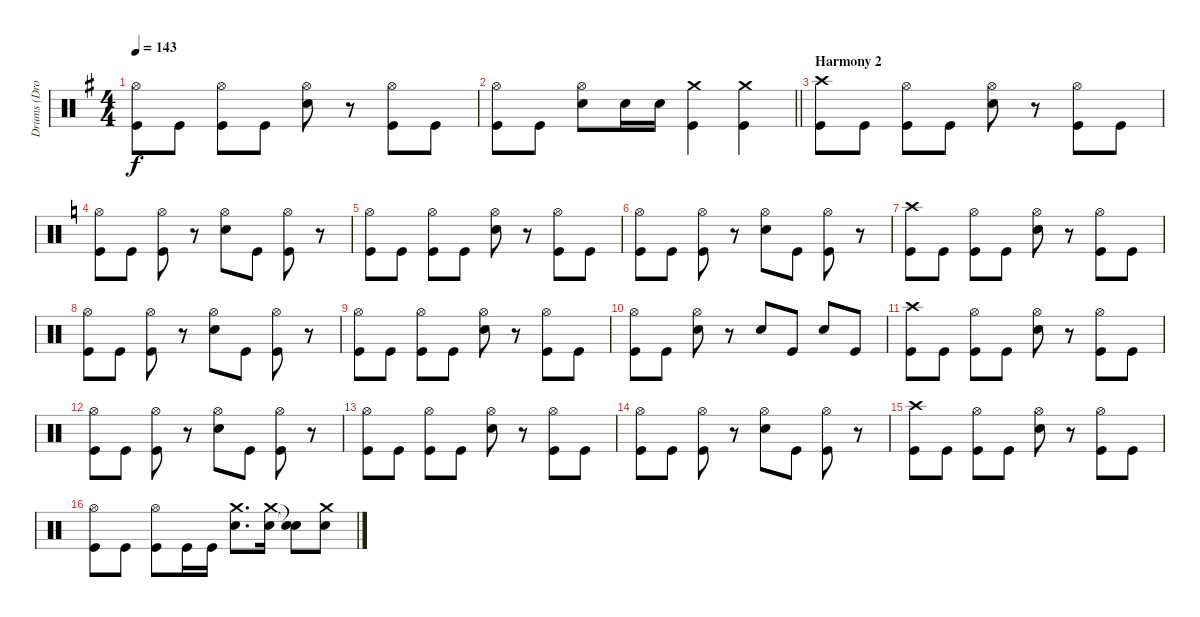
\track ("Drums (Drover)" "Drums (Dro") {instrument percussion}
\staff {score}
\articulation defaults
\ts (4 4)
\tempo 143
\clef neutral
\ks g
("Hi-Hat (open)" "Kick (hit)").8{dy f} "Kick (hit)".8 ("Hi-Hat (open)" "Kick (hit)").8 "Kick (hit)".8 ("Hi-Hat (open)" "Snare (hit) 2").8 r.8 ("Hi-Hat (open)" "Kick (hit)").8 "Kick (hit)".8 |
\barLineRight lightlight
("Hi-Hat (open)" "Kick (hit)").8 "Kick (hit)".8 ("Hi-Hat (open)" "Snare (hit) 2").8 "Snare (hit) 2".16 "Snare (hit) 2".16 ("Crash medium (hit)" "Kick (hit)").4 ("Crash medium (hit)" "Kick (hit)").4 |
\section ("" "Harmony 2")
("Crash high (hit)" "Kick (hit)").8 "Kick (hit)".8 ("Hi-Hat (open)" "Kick (hit)").8 "Kick (hit)".8 ("Hi-Hat (open)" "Snare (hit) 2").8 r.8 ("Hi-Hat (open)" "Kick (hit)").8 "Kick (hit)".8 |
\ks c
("Hi-Hat (open)" "Kick (hit)").8 "Kick (hit)".8 ("Hi-Hat (open)" "Kick (hit)").8 r.8 ("Hi-Hat (open)" "Snare (hit) 2").8 "Kick (hit)".8 ("Hi-Hat (open)" "Kick (hit)").8 r.8 |
("Hi-Hat (open)" "Kick (hit)").8 "Kick (hit)".8 ("Hi-Hat (open)" "Kick (hit)").8 "Kick (hit)".8 ("Hi-Hat (open)" "Snare (hit) 2").8 r.8 ("Hi-Hat (open)" "Kick (hit)").8 "Kick (hit)".8 |
("Hi-Hat (open)" "Kick (hit)").8 "Kick (hit)".8 ("Hi-Hat (open)" "Kick (hit)").8 r.8 ("Hi-Hat (open)" "Snare (hit) 2").8 "Kick (hit)".8 ("Hi-Hat (open)" "Kick (hit)").8 r.8 |
("Crash high (hit)" "Kick (hit)").8 "Kick (hit)".8 ("Hi-Hat (open)" "Kick (hit)").8 "Kick (hit)".8 ("Hi-Hat (open)" "Snare (hit) 2").8 r.8 ("Hi-Hat (open)" "Kick (hit)").8 "Kick (hit)".8 |
("Hi-Hat (open)" "Kick (hit)").8 "Kick (hit)".8 ("Hi-Hat (open)" "Kick (hit)").8 r.8 ("Hi-Hat (open)" "Snare (hit) 2").8 "Kick (hit)".8 ("Hi-Hat (open)" "Kick (hit)").8 r.8 |
("Hi-Hat (open)" "Kick (hit)").8 "Kick (hit)".8 ("Hi-Hat (open)" "Kick (hit)").8 "Kick (hit)".8 ("Hi-Hat (open)" "Snare (hit) 2").8 r.8 ("Hi-Hat (open)" "Kick (hit)").8 "Kick (hit)".8 |
("Hi-Hat (open)" "Kick (hit)").8 "Kick (hit)".8 ("Hi-Hat (open)" "Snare (hit) 2").8 r.8 "Snare (hit) 2".8 "Kick (hit)".8 "Snare (hit) 2".8 "Kick (hit)".8 |
("Crash high (hit)" "Kick (hit)").8 "Kick (hit)".8 ("Hi-Hat (open)" "Kick (hit)").8 "Kick (hit)".8 ("Hi-Hat (open)" "Snare (hit) 2").8 r.8 ("Hi-Hat (open)" "Kick (hit)").8 "Kick (hit)".8 |
("Hi-Hat (open)" "Kick (hit)").8 "Kick (hit)".8 ("Hi-Hat (open)" "Kick (hit)").8 r.8 ("Hi-Hat (open)" "Snare (hit) 2").8 "Kick (hit)".8 ("Hi-Hat (open)" "Kick (hit)").8 r.8 |
("Hi-Hat (open)" "Kick (hit)").8 "Kick (hit)".8 ("Hi-Hat (open)" "Kick (hit)").8 "Kick (hit)".8 ("Hi-Hat (open)" "Snare (hit) 2").8 r.8 ("Hi-Hat (open)" "Kick (hit)").8 "Kick (hit)".8 |
("Hi-Hat (open)" "Kick (hit)").8 "Kick (hit)".8 ("Hi-Hat (open)" "Kick (hit)").8 r.8 ("Hi-Hat (open)" "Snare (hit) 2").8 "Kick (hit)".8 ("Hi-Hat (open)" "Kick (hit)").8 r.8 |
("Crash high (hit)" "Kick (hit)").8 "Kick (hit)".8 ("Hi-Hat (open)" "Kick (hit)").8 "Kick (hit)".8 ("Hi-Hat (open)" "Snare (hit) 2").8 r.8 ("Hi-Hat (open)" "Kick (hit)").8 "Kick (hit)".8 |
("Hi-Hat (open)" "Kick (hit)").8 "Kick (hit)".8 ("Hi-Hat (open)" "Kick (hit)").8 "Kick (hit)".16 "Kick (hit)".16 ("Crash medium (hit)" "Snare (hit) 2").8{d} ("Crash medium (hit)" "Snare (hit) 2").16 ("Snare (hit)"{t} "Snare (hit)"{t}).8 ("Crash medium (hit)" "Snare (hit) 2").8
